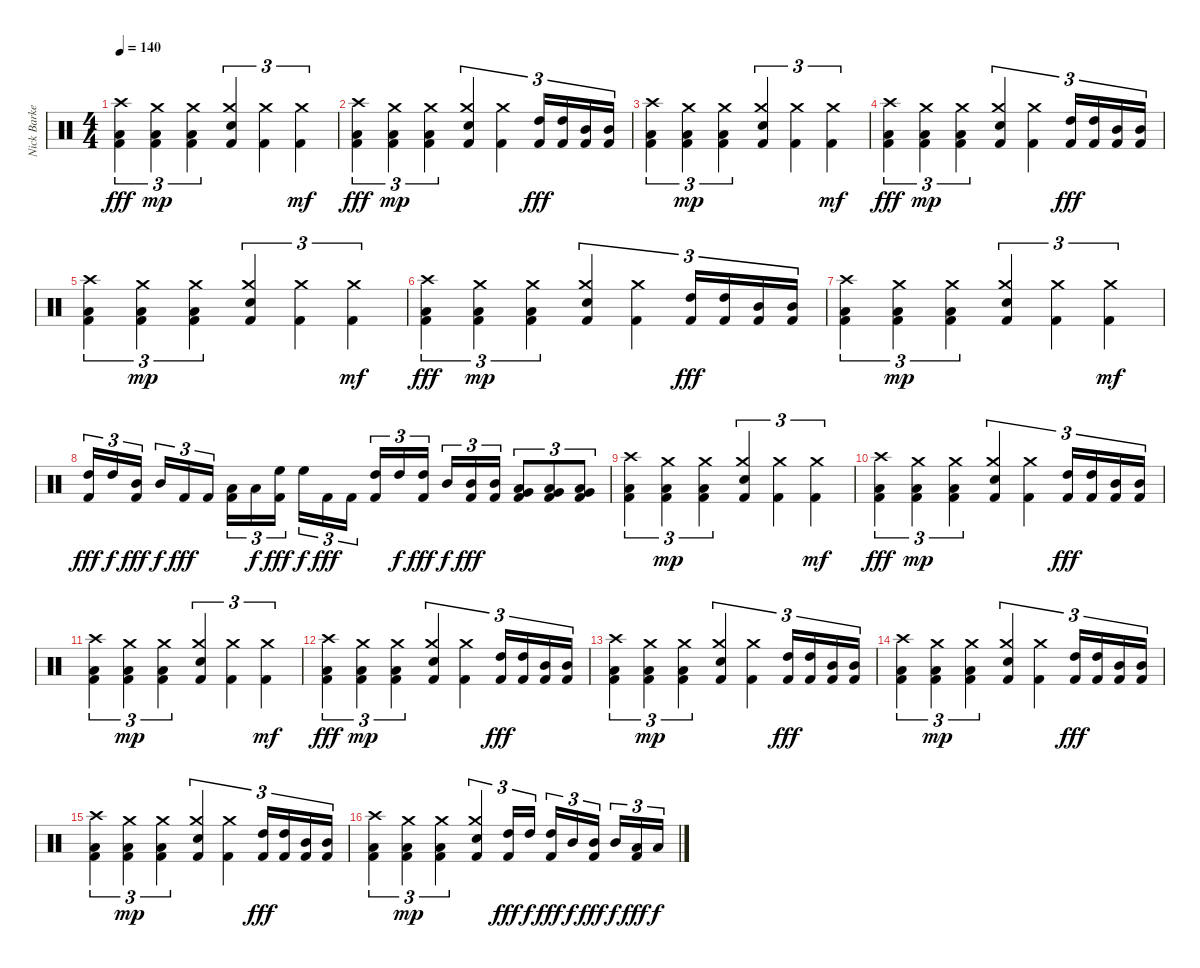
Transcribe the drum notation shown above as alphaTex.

\track ("Nick Barker - Drums - Percussion" "Nick Barke") {instrument percussion}
\staff {score}
\articulation defaults
\ts (4 4)
\tempo 140
\clef neutral
\ks c
("Kick (hit) 2" "Low Floor Tom (hit)" "Crash high (hit)").4{tu (3 2) dy fff} ("Kick (hit) 2" "Low Floor Tom (hit)" "Crash medium (hit)").4{tu (3 2) dy mp} ("Kick (hit) 2" "Low Floor Tom (hit)" "Crash medium (hit)").4{tu (3 2)} ("Kick (hit) 2" "Snare (hit) 2" "Crash medium (hit)").4{tu (3 2)} ("Kick (hit) 2" "Crash medium (hit)").4{tu (3 2)} ("Kick (hit) 2" "Crash medium (hit)").4{tu (3 2) dy mf} |
("Kick (hit) 2" "Low Floor Tom (hit)" "Crash high (hit)").4{tu (3 2) dy fff} ("Kick (hit) 2" "Low Floor Tom (hit)" "Crash medium (hit)").4{tu (3 2) dy mp} ("Kick (hit) 2" "Low Floor Tom (hit)" "Crash medium (hit)").4{tu (3 2)} ("Kick (hit) 2" "Snare (hit) 2" "Crash medium (hit)").4{tu (3 2)} ("Kick (hit) 2" "Crash medium (hit)").4{tu (3 2)} ("Kick (hit) 2" "High Tom (hit)").16{tu (3 2) dy fff} ("Kick (hit) 2" "High Tom (hit)").16{tu (3 2)} ("Kick (hit) 2" "Mid Tom (hit)").16{tu (3 2)} ("Kick (hit) 2" "Mid Tom (hit)").16{tu (3 2)} |
("Kick (hit) 2" "Low Floor Tom (hit)" "Crash high (hit)").4{tu (3 2)} ("Kick (hit) 2" "Low Floor Tom (hit)" "Crash medium (hit)").4{tu (3 2) dy mp} ("Kick (hit) 2" "Low Floor Tom (hit)" "Crash medium (hit)").4{tu (3 2)} ("Kick (hit) 2" "Snare (hit) 2" "Crash medium (hit)").4{tu (3 2)} ("Kick (hit) 2" "Crash medium (hit)").4{tu (3 2)} ("Kick (hit) 2" "Crash medium (hit)").4{tu (3 2) dy mf} |
("Kick (hit) 2" "Low Floor Tom (hit)" "Crash high (hit)").4{tu (3 2) dy fff} ("Kick (hit) 2" "Low Floor Tom (hit)" "Crash medium (hit)").4{tu (3 2) dy mp} ("Kick (hit) 2" "Low Floor Tom (hit)" "Crash medium (hit)").4{tu (3 2)} ("Kick (hit) 2" "Snare (hit) 2" "Crash medium (hit)").4{tu (3 2)} ("Kick (hit) 2" "Crash medium (hit)").4{tu (3 2)} ("Kick (hit) 2" "High Tom (hit)").16{tu (3 2) dy fff} ("Kick (hit) 2" "High Tom (hit)").16{tu (3 2)} ("Kick (hit) 2" "Mid Tom (hit)").16{tu (3 2)} ("Kick (hit) 2" "Mid Tom (hit)").16{tu (3 2)} |
("Kick (hit) 2" "Low Floor Tom (hit)" "Crash high (hit)").4{tu (3 2)} ("Kick (hit) 2" "Low Floor Tom (hit)" "Crash medium (hit)").4{tu (3 2) dy mp} ("Kick (hit) 2" "Low Floor Tom (hit)" "Crash medium (hit)").4{tu (3 2)} ("Kick (hit) 2" "Snare (hit) 2" "Crash medium (hit)").4{tu (3 2)} ("Kick (hit) 2" "Crash medium (hit)").4{tu (3 2)} ("Kick (hit) 2" "Crash medium (hit)").4{tu (3 2) dy mf} |
("Kick (hit) 2" "Low Floor Tom (hit)" "Crash high (hit)").4{tu (3 2) dy fff} ("Kick (hit) 2" "Low Floor Tom (hit)" "Crash medium (hit)").4{tu (3 2) dy mp} ("Kick (hit) 2" "Low Floor Tom (hit)" "Crash medium (hit)").4{tu (3 2)} ("Kick (hit) 2" "Snare (hit) 2" "Crash medium (hit)").4{tu (3 2)} ("Kick (hit) 2" "Crash medium (hit)").4{tu (3 2)} ("Kick (hit) 2" "High Tom (hit)").16{tu (3 2) dy fff} ("Kick (hit) 2" "High Tom (hit)").16{tu (3 2)} ("Kick (hit) 2" "Mid Tom (hit)").16{tu (3 2)} ("Kick (hit) 2" "Mid Tom (hit)").16{tu (3 2)} |
("Kick (hit) 2" "Low Floor Tom (hit)" "Crash high (hit)").4{tu (3 2)} ("Kick (hit) 2" "Low Floor Tom (hit)" "Crash medium (hit)").4{tu (3 2) dy mp} ("Kick (hit) 2" "Low Floor Tom (hit)" "Crash medium (hit)").4{tu (3 2)} ("Kick (hit) 2" "Snare (hit) 2" "Crash medium (hit)").4{tu (3 2)} ("Kick (hit) 2" "Crash medium (hit)").4{tu (3 2)} ("Kick (hit) 2" "Crash medium (hit)").4{tu (3 2) dy mf} |
("Kick (hit) 2" "High Tom (hit)").16{tu (3 2) dy fff} "High Tom (hit)".16{tu (3 2) dy f} ("Kick (hit) 2" "Mid Tom (hit)").16{tu (3 2) dy fff} "Mid Tom (hit)".16{tu (3 2) dy f} "Kick (hit) 2".16{tu (3 2) dy fff} "Kick (hit) 2".16{tu (3 2)} ("Kick (hit) 2" "Low Tom (hit)").16{tu (3 2)} "Low Tom (hit)".16{tu (3 2) dy f} ("Kick (hit) 2" "High Floor Tom (hit)").16{tu (3 2) dy fff} "High Floor Tom (hit)".16{tu (3 2) dy f} "Kick (hit) 2".16{tu (3 2) dy fff} "Kick (hit) 2".16{tu (3 2)} ("Kick (hit) 2" "High Tom (hit)").16{tu (3 2)} "High Tom (hit)".16{tu (3 2) dy f} ("Kick (hit) 2" "High Tom (hit)").16{tu (3 2) dy fff} "Mid Tom (hit)".16{tu (3 2) dy f} ("Kick (hit) 2" "Mid Tom (hit)").16{tu (3 2) dy fff} ("Kick (hit) 2" "Mid Tom (hit)").16{tu (3 2)} ("Kick (hit) 2" "Low Floor Tom (hit)" "Very Low Tom (hit)").8{tu (3 2)} ("Kick (hit) 2" "Low Floor Tom (hit)" "Very Low Tom (hit)").8{tu (3 2)} ("Kick (hit) 2" "Low Floor Tom (hit)" "Very Low Tom (hit)").8{tu (3 2)} |
("Kick (hit) 2" "Low Floor Tom (hit)" "Crash high (hit)").4{tu (3 2)} ("Kick (hit) 2" "Low Floor Tom (hit)" "Crash medium (hit)").4{tu (3 2) dy mp} ("Kick (hit) 2" "Low Floor Tom (hit)" "Crash medium (hit)").4{tu (3 2)} ("Kick (hit) 2" "Snare (hit) 2" "Crash medium (hit)").4{tu (3 2)} ("Kick (hit) 2" "Crash medium (hit)").4{tu (3 2)} ("Kick (hit) 2" "Crash medium (hit)").4{tu (3 2) dy mf} |
("Kick (hit) 2" "Low Floor Tom (hit)" "Crash high (hit)").4{tu (3 2) dy fff} ("Kick (hit) 2" "Low Floor Tom (hit)" "Crash medium (hit)").4{tu (3 2) dy mp} ("Kick (hit) 2" "Low Floor Tom (hit)" "Crash medium (hit)").4{tu (3 2)} ("Kick (hit) 2" "Snare (hit) 2" "Crash medium (hit)").4{tu (3 2)} ("Kick (hit) 2" "Crash medium (hit)").4{tu (3 2)} ("Kick (hit) 2" "High Tom (hit)").16{tu (3 2) dy fff} ("Kick (hit) 2" "High Tom (hit)").16{tu (3 2)} ("Kick (hit) 2" "Mid Tom (hit)").16{tu (3 2)} ("Kick (hit) 2" "Mid Tom (hit)").16{tu (3 2)} |
("Kick (hit) 2" "Low Floor Tom (hit)" "Crash high (hit)").4{tu (3 2)} ("Kick (hit) 2" "Low Floor Tom (hit)" "Crash medium (hit)").4{tu (3 2) dy mp} ("Kick (hit) 2" "Low Floor Tom (hit)" "Crash medium (hit)").4{tu (3 2)} ("Kick (hit) 2" "Snare (hit) 2" "Crash medium (hit)").4{tu (3 2)} ("Kick (hit) 2" "Crash medium (hit)").4{tu (3 2)} ("Kick (hit) 2" "Crash medium (hit)").4{tu (3 2) dy mf} |
("Kick (hit) 2" "Low Floor Tom (hit)" "Crash high (hit)").4{tu (3 2) dy fff} ("Kick (hit) 2" "Low Floor Tom (hit)" "Crash medium (hit)").4{tu (3 2) dy mp} ("Kick (hit) 2" "Low Floor Tom (hit)" "Crash medium (hit)").4{tu (3 2)} ("Kick (hit) 2" "Snare (hit) 2" "Crash medium (hit)").4{tu (3 2)} ("Kick (hit) 2" "Crash medium (hit)").4{tu (3 2)} ("Kick (hit) 2" "High Tom (hit)").16{tu (3 2) dy fff} ("Kick (hit) 2" "High Tom (hit)").16{tu (3 2)} ("Kick (hit) 2" "Mid Tom (hit)").16{tu (3 2)} ("Kick (hit) 2" "Mid Tom (hit)").16{tu (3 2)} |
("Kick (hit) 2" "Low Floor Tom (hit)" "Crash high (hit)").4{tu (3 2)} ("Kick (hit) 2" "Low Floor Tom (hit)" "Crash medium (hit)").4{tu (3 2) dy mp} ("Kick (hit) 2" "Low Floor Tom (hit)" "Crash medium (hit)").4{tu (3 2)} ("Kick (hit) 2" "Snare (hit) 2" "Crash medium (hit)").4{tu (3 2)} ("Kick (hit) 2" "Crash medium (hit)").4{tu (3 2)} ("Kick (hit) 2" "High Tom (hit)").16{tu (3 2) dy fff} ("Kick (hit) 2" "High Tom (hit)").16{tu (3 2)} ("Kick (hit) 2" "Mid Tom (hit)").16{tu (3 2)} ("Kick (hit) 2" "Mid Tom (hit)").16{tu (3 2)} |
("Kick (hit) 2" "Low Floor Tom (hit)" "Crash high (hit)").4{tu (3 2)} ("Kick (hit) 2" "Low Floor Tom (hit)" "Crash medium (hit)").4{tu (3 2) dy mp} ("Kick (hit) 2" "Low Floor Tom (hit)" "Crash medium (hit)").4{tu (3 2)} ("Kick (hit) 2" "Snare (hit) 2" "Crash medium (hit)").4{tu (3 2)} ("Kick (hit) 2" "Crash medium (hit)").4{tu (3 2)} ("Kick (hit) 2" "High Tom (hit)").16{tu (3 2) dy fff} ("Kick (hit) 2" "High Tom (hit)").16{tu (3 2)} ("Kick (hit) 2" "Mid Tom (hit)").16{tu (3 2)} ("Kick (hit) 2" "Mid Tom (hit)").16{tu (3 2)} |
("Kick (hit) 2" "Low Floor Tom (hit)" "Crash high (hit)").4{tu (3 2)} ("Kick (hit) 2" "Low Floor Tom (hit)" "Crash medium (hit)").4{tu (3 2) dy mp} ("Kick (hit) 2" "Low Floor Tom (hit)" "Crash medium (hit)").4{tu (3 2)} ("Kick (hit) 2" "Snare (hit) 2" "Crash medium (hit)").4{tu (3 2)} ("Kick (hit) 2" "Crash medium (hit)").4{tu (3 2)} ("Kick (hit) 2" "High Tom (hit)").16{tu (3 2) dy fff} ("Kick (hit) 2" "High Tom (hit)").16{tu (3 2)} ("Kick (hit) 2" "Mid Tom (hit)").16{tu (3 2)} ("Kick (hit) 2" "Mid Tom (hit)").16{tu (3 2)} |
("Kick (hit) 2" "Low Floor Tom (hit)" "Crash high (hit)").4{tu (3 2)} ("Kick (hit) 2" "Low Floor Tom (hit)" "Crash medium (hit)").4{tu (3 2) dy mp} ("Kick (hit) 2" "Low Floor Tom (hit)" "Crash medium (hit)").4{tu (3 2)} ("Kick (hit) 2" "Snare (hit) 2" "Crash medium (hit)").4{tu (3 2)} ("Kick (hit) 2" "High Tom (hit)").16{tu (3 2) dy fff} "High Tom (hit)".16{tu (3 2) dy f} ("Kick (hit) 2" "High Tom (hit)").16{tu (3 2) dy fff} "Mid Tom (hit)".16{tu (3 2) dy f} ("Kick (hit) 2" "Mid Tom (hit)").16{tu (3 2) dy fff} "Mid Tom (hit)".16{tu (3 2) dy f} ("Kick (hit) 2" "Low Tom (hit)").16{tu (3 2) dy fff} "Low Tom (hit)".16{tu (3 2) dy f}
